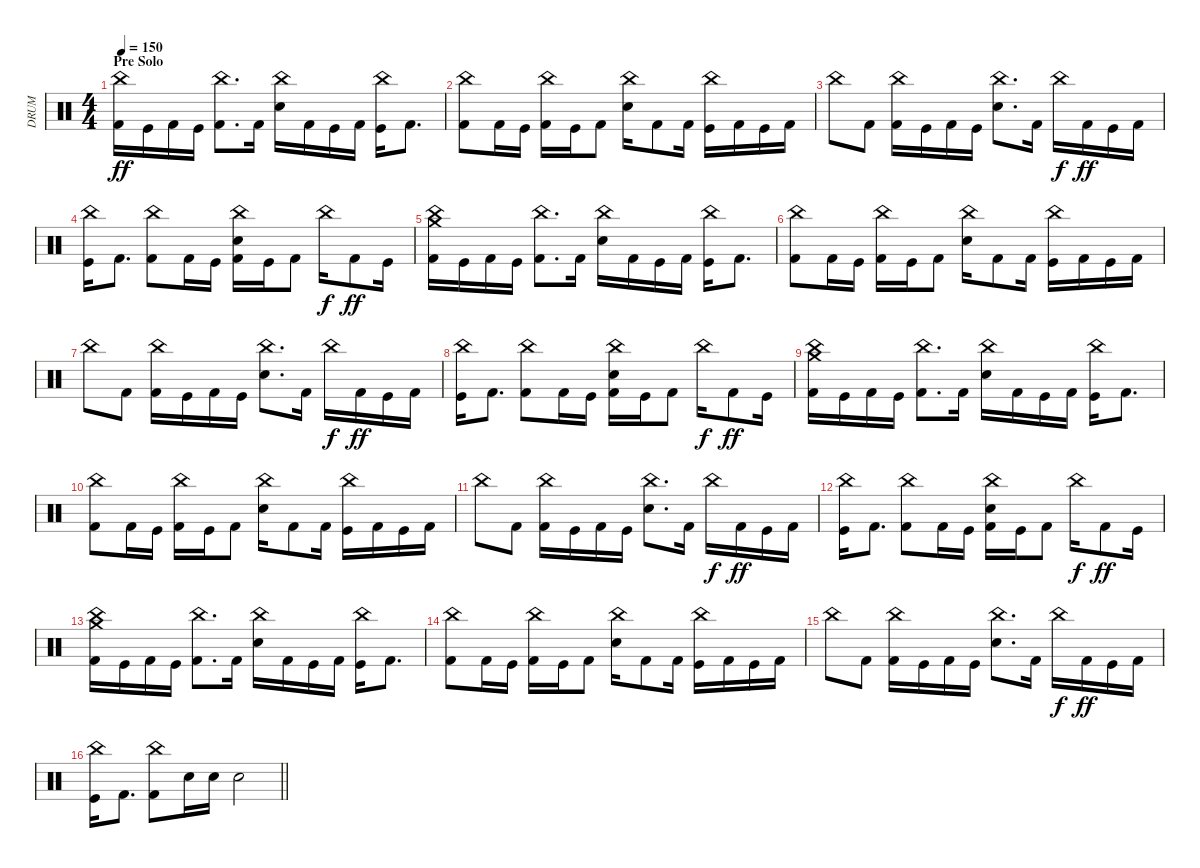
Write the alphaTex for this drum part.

\track ("DRUM" "DRUM") {instrument percussion}
\staff {score}
\articulation defaults
\ts (4 4)
\section ("" "Pre Solo")
\tempo 150
\clef neutral
\ks c
("China (hit)" "Kick (hit) 2").16{dy ff} "Kick (hit)".16 "Kick (hit) 2".16 "Kick (hit)".16 ("China (hit)" "Kick (hit) 2").8{d} "Kick (hit) 2".16 ("China (hit)" "Snare (hit) 2").16 "Kick (hit) 2".16 "Kick (hit)".16 "Kick (hit) 2".16 ("China (hit)" "Kick (hit)").16 "Kick (hit) 2".8{d} |
("China (hit)" "Kick (hit) 2").8 "Kick (hit) 2".16 "Kick (hit)".16 ("China (hit)" "Kick (hit) 2").16 "Kick (hit)".16 "Kick (hit) 2".8 ("China (hit)" "Snare (hit) 2").16 "Kick (hit) 2".8 "Kick (hit) 2".16 ("China (hit)" "Kick (hit)").16 "Kick (hit) 2".16 "Kick (hit)".16 "Kick (hit) 2".16 |
"China (hit)".8 "Kick (hit) 2".8 ("China (hit)" "Kick (hit) 2").16 "Kick (hit)".16 "Kick (hit) 2".16 "Kick (hit)".16 ("China (hit)" "Snare (hit) 2").8{d} "Kick (hit) 2".16 "China (hit)".16{dy f} "Kick (hit) 2".16{dy ff} "Kick (hit)".16 "Kick (hit) 2".16 |
("China (hit)" "Kick (hit)").16 "Kick (hit) 2".8{d} ("China (hit)" "Kick (hit) 2").8 "Kick (hit) 2".16 "Kick (hit)".16 ("China (hit)" "Snare (hit) 2" "Kick (hit) 2").16 "Kick (hit)".16 "Kick (hit) 2".8 "China (hit)".16{dy f} "Kick (hit) 2".8{dy ff} "Kick (hit)".16 |
("China (hit)" "Crash medium (hit)" "Kick (hit) 2").16 "Kick (hit)".16 "Kick (hit) 2".16 "Kick (hit)".16 ("China (hit)" "Kick (hit) 2").8{d} "Kick (hit) 2".16 ("China (hit)" "Snare (hit) 2").16 "Kick (hit) 2".16 "Kick (hit)".16 "Kick (hit) 2".16 ("China (hit)" "Kick (hit)").16 "Kick (hit) 2".8{d} |
("China (hit)" "Kick (hit) 2").8 "Kick (hit) 2".16 "Kick (hit)".16 ("China (hit)" "Kick (hit) 2").16 "Kick (hit)".16 "Kick (hit) 2".8 ("China (hit)" "Snare (hit) 2").16 "Kick (hit) 2".8 "Kick (hit) 2".16 ("China (hit)" "Kick (hit)").16 "Kick (hit) 2".16 "Kick (hit)".16 "Kick (hit) 2".16 |
"China (hit)".8 "Kick (hit) 2".8 ("China (hit)" "Kick (hit) 2").16 "Kick (hit)".16 "Kick (hit) 2".16 "Kick (hit)".16 ("China (hit)" "Snare (hit) 2").8{d} "Kick (hit) 2".16 "China (hit)".16{dy f} "Kick (hit) 2".16{dy ff} "Kick (hit)".16 "Kick (hit) 2".16 |
("China (hit)" "Kick (hit)").16 "Kick (hit) 2".8{d} ("China (hit)" "Kick (hit) 2").8 "Kick (hit) 2".16 "Kick (hit)".16 ("China (hit)" "Snare (hit) 2" "Kick (hit) 2").16 "Kick (hit)".16 "Kick (hit) 2".8 "China (hit)".16{dy f} "Kick (hit) 2".8{dy ff} "Kick (hit)".16 |
("China (hit)" "Crash medium (hit)" "Kick (hit) 2").16 "Kick (hit)".16 "Kick (hit) 2".16 "Kick (hit)".16 ("China (hit)" "Kick (hit) 2").8{d} "Kick (hit) 2".16 ("China (hit)" "Snare (hit) 2").16 "Kick (hit) 2".16 "Kick (hit)".16 "Kick (hit) 2".16 ("China (hit)" "Kick (hit)").16 "Kick (hit) 2".8{d} |
("China (hit)" "Kick (hit) 2").8 "Kick (hit) 2".16 "Kick (hit)".16 ("China (hit)" "Kick (hit) 2").16 "Kick (hit)".16 "Kick (hit) 2".8 ("China (hit)" "Snare (hit) 2").16 "Kick (hit) 2".8 "Kick (hit) 2".16 ("China (hit)" "Kick (hit)").16 "Kick (hit) 2".16 "Kick (hit)".16 "Kick (hit) 2".16 |
"China (hit)".8 "Kick (hit) 2".8 ("China (hit)" "Kick (hit) 2").16 "Kick (hit)".16 "Kick (hit) 2".16 "Kick (hit)".16 ("China (hit)" "Snare (hit) 2").8{d} "Kick (hit) 2".16 "China (hit)".16{dy f} "Kick (hit) 2".16{dy ff} "Kick (hit)".16 "Kick (hit) 2".16 |
("China (hit)" "Kick (hit)").16 "Kick (hit) 2".8{d} ("China (hit)" "Kick (hit) 2").8 "Kick (hit) 2".16 "Kick (hit)".16 ("China (hit)" "Snare (hit) 2" "Kick (hit) 2").16 "Kick (hit)".16 "Kick (hit) 2".8 "China (hit)".16{dy f} "Kick (hit) 2".8{dy ff} "Kick (hit)".16 |
("China (hit)" "Crash medium (hit)" "Kick (hit) 2").16 "Kick (hit)".16 "Kick (hit) 2".16 "Kick (hit)".16 ("China (hit)" "Kick (hit) 2").8{d} "Kick (hit) 2".16 ("China (hit)" "Snare (hit) 2").16 "Kick (hit) 2".16 "Kick (hit)".16 "Kick (hit) 2".16 ("China (hit)" "Kick (hit)").16 "Kick (hit) 2".8{d} |
("China (hit)" "Kick (hit) 2").8 "Kick (hit) 2".16 "Kick (hit)".16 ("China (hit)" "Kick (hit) 2").16 "Kick (hit)".16 "Kick (hit) 2".8 ("China (hit)" "Snare (hit) 2").16 "Kick (hit) 2".8 "Kick (hit) 2".16 ("China (hit)" "Kick (hit)").16 "Kick (hit) 2".16 "Kick (hit)".16 "Kick (hit) 2".16 |
"China (hit)".8 "Kick (hit) 2".8 ("China (hit)" "Kick (hit) 2").16 "Kick (hit)".16 "Kick (hit) 2".16 "Kick (hit)".16 ("China (hit)" "Snare (hit) 2").8{d} "Kick (hit) 2".16 "China (hit)".16{dy f} "Kick (hit) 2".16{dy ff} "Kick (hit)".16 "Kick (hit) 2".16 |
\barLineRight lightlight
("China (hit)" "Kick (hit)").16 "Kick (hit) 2".8{d} ("China (hit)" "Kick (hit) 2").8 "Electric Snare (hit)".16 "Snare (hit) 2".16 "Electric Snare (hit)".2
